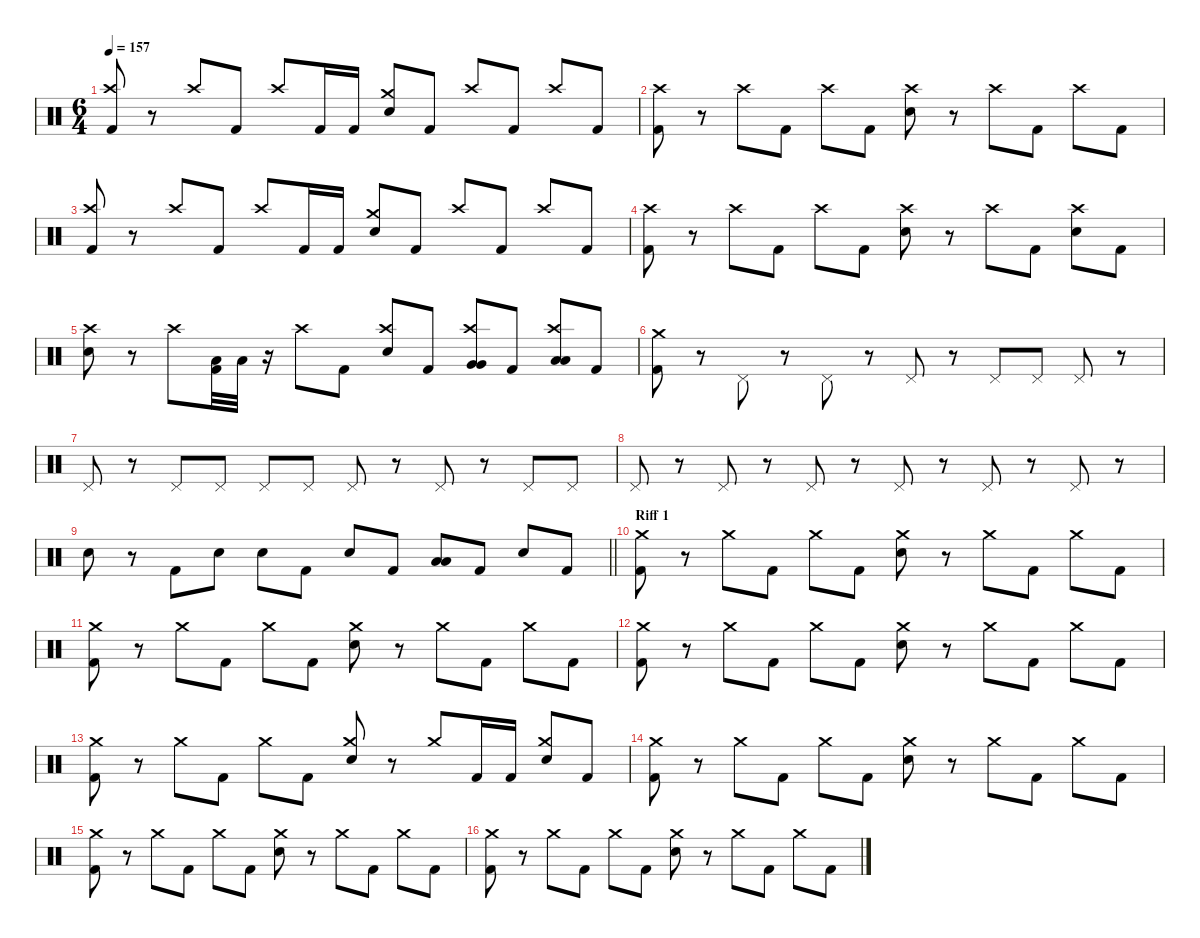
\defaultSystemsLayout 4
\hideDynamics
\bracketExtendMode nobrackets
\singleTrackTrackNamePolicy hidden
\multiTrackTrackNamePolicy hidden
\firstSystemTrackNameMode fullname
\firstSystemTrackNameOrientation horizontal
\otherSystemsTrackNameOrientation horizontal
\track ("Drums" "drm.") {defaultSystemsLayout 4 instrument percussion}
\staff {score}
\articulation defaults
\ts (6 4)
\tempo 157
\clef neutral
\ks c
("Crash high (hit)" "Kick (hit) 2").8{dy f beam Up} r.8{beam Up} "Crash high (hit)".8{beam Up} "Kick (hit) 2".8{beam Up} "Crash high (hit)".8{beam Up} "Kick (hit) 2".16{beam Up} "Kick (hit) 2".16{beam Up} ("Crash medium (hit)" "Snare (hit) 2").8{beam Up} "Kick (hit) 2".8{beam Up} "Crash high (hit)".8{beam Up} "Kick (hit) 2".8{beam Up} "Crash high (hit)".8{beam Up} "Kick (hit) 2".8{beam Up} |
("Crash high (hit)" "Kick (hit) 2").8{beam Down} r.8{beam Down} "Crash high (hit)".8{beam Down} "Kick (hit) 2".8{beam Down} "Crash high (hit)".8{beam Down} "Kick (hit) 2".8{beam Down} ("Crash high (hit)" "Snare (hit) 2").8{beam Down} r.8{beam Down} "Crash high (hit)".8{beam Down} "Kick (hit) 2".8{beam Down} "Crash high (hit)".8{beam Down} "Kick (hit) 2".8{beam Down} |
("Crash high (hit)" "Kick (hit) 2").8{beam Up} r.8{beam Up} "Crash high (hit)".8{beam Up} "Kick (hit) 2".8{beam Up} "Crash high (hit)".8{beam Up} "Kick (hit) 2".16{beam Up} "Kick (hit) 2".16{beam Up} ("Crash medium (hit)" "Snare (hit) 2").8{beam Up} "Kick (hit) 2".8{beam Up} "Crash high (hit)".8{beam Up} "Kick (hit) 2".8{beam Up} "Crash high (hit)".8{beam Up} "Kick (hit) 2".8{beam Up} |
("Crash high (hit)" "Kick (hit) 2").8{beam Down} r.8{beam Down} "Crash high (hit)".8{beam Down} "Kick (hit) 2".8{beam Down} "Crash high (hit)".8{beam Down} "Kick (hit) 2".8{beam Down} ("Crash high (hit)" "Snare (hit) 2").8{beam Down} r.8{beam Down} "Crash high (hit)".8{beam Down} "Kick (hit) 2".8{beam Down} ("Crash high (hit)" "Snare (hit) 2").8{beam Down} "Kick (hit) 2".8{beam Down} |
("Crash high (hit)" "Snare (hit) 2").8{beam Down} r.8{beam Down} "Crash high (hit)".8{beam Down} ("Low Tom (hit)" "Kick (hit) 2").32{beam Down} "Low Tom (hit)".32{beam Down} r.16{beam Down} "Crash high (hit)".8{beam Down} "Kick (hit) 2".8{beam Down} ("Crash high (hit)" "Snare (hit) 2").8{beam Up} "Kick (hit) 2".8{beam Up} ("Crash high (hit)" "Very Low Tom (hit)" "Very Low Tom (hit)").8{beam Up} "Kick (hit) 2".8{beam Up} ("Crash high (hit)" "Low Floor Tom (hit)" "Low Floor Tom (hit)").8{beam Up} "Kick (hit) 2".8{beam Up} |
("Crash medium (hit)" "Kick (hit) 2").8{beam Down} r.8{beam Down} "Pedal Hi-Hat (hit)".8{beam Down} r.8{beam Down} "Pedal Hi-Hat (hit)".8{beam Down} r.8{beam Down} "Pedal Hi-Hat (hit)".8{beam Up} r.8{beam Up} "Pedal Hi-Hat (hit)".8{beam Up} "Pedal Hi-Hat (hit)".8{beam Up} "Pedal Hi-Hat (hit)".8{beam Up} r.8{beam Up} |
"Pedal Hi-Hat (hit)".8{beam Up} r.8{beam Up} "Pedal Hi-Hat (hit)".8{beam Up} "Pedal Hi-Hat (hit)".8{beam Up} "Pedal Hi-Hat (hit)".8{beam Up} "Pedal Hi-Hat (hit)".8{beam Up} "Pedal Hi-Hat (hit)".8{beam Up} r.8{beam Up} "Pedal Hi-Hat (hit)".8{beam Up} r.8{beam Up} "Pedal Hi-Hat (hit)".8{beam Up} "Pedal Hi-Hat (hit)".8{beam Up} |
"Pedal Hi-Hat (hit)".8{beam Up} r.8{beam Up} "Pedal Hi-Hat (hit)".8{beam Up} r.8{beam Up} "Pedal Hi-Hat (hit)".8{beam Up} r.8{beam Up} "Pedal Hi-Hat (hit)".8{beam Up} r.8{beam Up} "Pedal Hi-Hat (hit)".8{beam Up} r.8{beam Up} "Pedal Hi-Hat (hit)".8{beam Up} r.8{beam Up} |
\barLineRight lightlight "Snare (hit) 2".8{beam Down}
r.8{beam Down} "Kick (hit) 2".8{beam Down} "Snare (hit) 2".8{beam Down} "Snare (hit) 2".8{beam Down} "Kick (hit) 2".8{beam Down} "Snare (hit) 2".8{beam Up} "Kick (hit) 2".8{beam Up} ("Low Tom (hit)" "Low Tom (hit)").8{beam Up} "Kick (hit) 2".8{beam Up} "Snare (hit) 2".8{beam Up} "Kick (hit) 2".8{beam Up} |
\section ("" "Riff 1")
("Crash medium (hit)" "Kick (hit) 2").8{beam Down} r.8{beam Down} "Crash medium (hit)".8{beam Down} "Kick (hit) 2".8{beam Down} "Crash medium (hit)".8{beam Down} "Kick (hit) 2".8{beam Down} ("Crash medium (hit)" "Snare (hit) 2").8{beam Down} r.8{beam Down} "Crash medium (hit)".8{beam Down} "Kick (hit) 2".8{beam Down} "Crash medium (hit)".8{beam Down} "Kick (hit) 2".8{beam Down} |
("Crash medium (hit)" "Kick (hit) 2").8{beam Down} r.8{beam Down} "Crash medium (hit)".8{beam Down} "Kick (hit) 2".8{beam Down} "Crash medium (hit)".8{beam Down} "Kick (hit) 2".8{beam Down} ("Crash medium (hit)" "Snare (hit) 2").8{beam Down} r.8{beam Down} "Crash medium (hit)".8{beam Down} "Kick (hit) 2".8{beam Down} "Crash medium (hit)".8{beam Down} "Kick (hit) 2".8{beam Down} |
("Crash medium (hit)" "Kick (hit) 2").8{beam Down} r.8{beam Down} "Crash medium (hit)".8{beam Down} "Kick (hit) 2".8{beam Down} "Crash medium (hit)".8{beam Down} "Kick (hit) 2".8{beam Down} ("Crash medium (hit)" "Snare (hit) 2").8{beam Down} r.8{beam Down} "Crash medium (hit)".8{beam Down} "Kick (hit) 2".8{beam Down} "Crash medium (hit)".8{beam Down} "Kick (hit) 2".8{beam Down} |
("Crash medium (hit)" "Kick (hit) 2").8{beam Down} r.8{beam Down} "Crash medium (hit)".8{beam Down} "Kick (hit) 2".8{beam Down} "Crash medium (hit)".8{beam Down} "Kick (hit) 2".8{beam Down} ("Crash medium (hit)" "Snare (hit) 2").8{beam Up} r.8{beam Up} "Crash medium (hit)".8{beam Up} "Kick (hit) 2".16{beam Up} "Kick (hit) 2".16{beam Up} ("Crash medium (hit)" "Snare (hit) 2").8{beam Up} "Kick (hit) 2".8{beam Up} |
("Crash medium (hit)" "Kick (hit) 2").8{beam Down} r.8{beam Down} "Crash medium (hit)".8{beam Down} "Kick (hit) 2".8{beam Down} "Crash medium (hit)".8{beam Down} "Kick (hit) 2".8{beam Down} ("Crash medium (hit)" "Snare (hit) 2").8{beam Down} r.8{beam Down} "Crash medium (hit)".8{beam Down} "Kick (hit) 2".8{beam Down} "Crash medium (hit)".8{beam Down} "Kick (hit) 2".8{beam Down} |
("Crash medium (hit)" "Kick (hit) 2").8{beam Down} r.8{beam Down} "Crash medium (hit)".8{beam Down} "Kick (hit) 2".8{beam Down} "Crash medium (hit)".8{beam Down} "Kick (hit) 2".8{beam Down} ("Crash medium (hit)" "Snare (hit) 2").8{beam Down} r.8{beam Down} "Crash medium (hit)".8{beam Down} "Kick (hit) 2".8{beam Down} "Crash medium (hit)".8{beam Down} "Kick (hit) 2".8{beam Down} |
("Crash medium (hit)" "Kick (hit) 2").8{beam Down} r.8{beam Down} "Crash medium (hit)".8{beam Down} "Kick (hit) 2".8{beam Down} "Crash medium (hit)".8{beam Down} "Kick (hit) 2".8{beam Down} ("Crash medium (hit)" "Snare (hit) 2").8{beam Down} r.8{beam Down} "Crash medium (hit)".8{beam Down} "Kick (hit) 2".8{beam Down} "Crash medium (hit)".8{beam Down} "Kick (hit) 2".8{beam Down}
